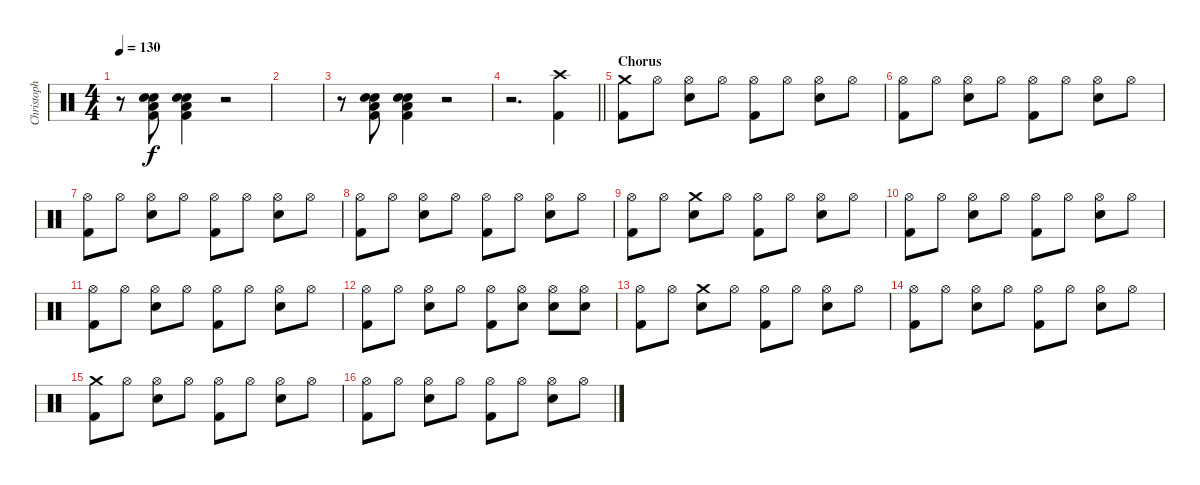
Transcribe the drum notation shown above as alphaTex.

\track ("Christoph \"Doom\" Schneider" "Christoph ") {instrument percussion}
\staff {score}
\articulation defaults
\ts (4 4)
\tempo 130
\clef neutral
\ks c
r.8{dy f} ("Electric Snare (hit)" "Kick (hit) 2" "Low Floor Tom (hit)" "Electric Snare (hit)").8 ("Electric Snare (hit)" "Kick (hit) 2" "Low Floor Tom (hit)" "Electric Snare (hit)").4 r.2 |
|
r.8 ("Electric Snare (hit)" "Kick (hit) 2" "Low Floor Tom (hit)" "Electric Snare (hit)").8 ("Electric Snare (hit)" "Kick (hit) 2" "Low Floor Tom (hit)" "Electric Snare (hit)").4 r.2 |
\barLineRight lightlight
r.2{d} ("Crash high (hit)" "Kick (hit) 2").4 |
\section ("" "Chorus")
("Crash medium (hit)" "Kick (hit) 2").8 "Hi-Hat (open)".8 ("Hi-Hat (open)" "Electric Snare (hit)").8 "Hi-Hat (open)".8 ("Hi-Hat (open)" "Kick (hit) 2").8 "Hi-Hat (open)".8 ("Hi-Hat (open)" "Electric Snare (hit)").8 "Hi-Hat (open)".8 |
("Hi-Hat (open)" "Kick (hit) 2").8 "Hi-Hat (open)".8 ("Hi-Hat (open)" "Electric Snare (hit)").8 "Hi-Hat (open)".8 ("Hi-Hat (open)" "Kick (hit) 2").8 "Hi-Hat (open)".8 ("Hi-Hat (open)" "Electric Snare (hit)").8 "Hi-Hat (open)".8 |
("Hi-Hat (open)" "Kick (hit) 2").8 "Hi-Hat (open)".8 ("Hi-Hat (open)" "Electric Snare (hit)").8 "Hi-Hat (open)".8 ("Hi-Hat (open)" "Kick (hit) 2").8 "Hi-Hat (open)".8 ("Hi-Hat (open)" "Electric Snare (hit)").8 "Hi-Hat (open)".8 |
("Hi-Hat (open)" "Kick (hit) 2").8 "Hi-Hat (open)".8 ("Hi-Hat (open)" "Electric Snare (hit)").8 "Hi-Hat (open)".8 ("Hi-Hat (open)" "Kick (hit) 2").8 "Hi-Hat (open)".8 ("Hi-Hat (open)" "Electric Snare (hit)").8 "Hi-Hat (open)".8 |
("Hi-Hat (open)" "Kick (hit) 2").8 "Hi-Hat (open)".8 ("Crash medium (hit)" "Electric Snare (hit)").8 "Hi-Hat (open)".8 ("Hi-Hat (open)" "Kick (hit) 2").8 "Hi-Hat (open)".8 ("Hi-Hat (open)" "Electric Snare (hit)").8 "Hi-Hat (open)".8 |
("Hi-Hat (open)" "Kick (hit) 2").8 "Hi-Hat (open)".8 ("Hi-Hat (open)" "Electric Snare (hit)").8 "Hi-Hat (open)".8 ("Hi-Hat (open)" "Kick (hit) 2").8 "Hi-Hat (open)".8 ("Hi-Hat (open)" "Electric Snare (hit)").8 "Hi-Hat (open)".8 |
("Hi-Hat (open)" "Kick (hit) 2").8 "Hi-Hat (open)".8 ("Hi-Hat (open)" "Electric Snare (hit)").8 "Hi-Hat (open)".8 ("Hi-Hat (open)" "Kick (hit) 2").8 "Hi-Hat (open)".8 ("Hi-Hat (open)" "Electric Snare (hit)").8 "Hi-Hat (open)".8 |
("Hi-Hat (open)" "Kick (hit) 2").8 "Hi-Hat (open)".8 ("Hi-Hat (open)" "Electric Snare (hit)").8 "Hi-Hat (open)".8 ("Hi-Hat (open)" "Kick (hit) 2").8 ("Hi-Hat (open)" "Electric Snare (hit)").8 ("Hi-Hat (open)" "Electric Snare (hit)").8 ("Hi-Hat (open)" "Electric Snare (hit)").8 |
("Hi-Hat (open)" "Kick (hit) 2").8 "Hi-Hat (open)".8 ("Crash medium (hit)" "Electric Snare (hit)").8 "Hi-Hat (open)".8 ("Hi-Hat (open)" "Kick (hit) 2").8 "Hi-Hat (open)".8 ("Hi-Hat (open)" "Electric Snare (hit)").8 "Hi-Hat (open)".8 |
("Hi-Hat (open)" "Kick (hit) 2").8 "Hi-Hat (open)".8 ("Hi-Hat (open)" "Electric Snare (hit)").8 "Hi-Hat (open)".8 ("Hi-Hat (open)" "Kick (hit) 2").8 "Hi-Hat (open)".8 ("Hi-Hat (open)" "Electric Snare (hit)").8 "Hi-Hat (open)".8 |
("Crash medium (hit)" "Kick (hit) 2").8 "Hi-Hat (open)".8 ("Hi-Hat (open)" "Electric Snare (hit)").8 "Hi-Hat (open)".8 ("Hi-Hat (open)" "Kick (hit) 2").8 "Hi-Hat (open)".8 ("Hi-Hat (open)" "Electric Snare (hit)").8 "Hi-Hat (open)".8 |
("Hi-Hat (open)" "Kick (hit) 2").8 "Hi-Hat (open)".8 ("Hi-Hat (open)" "Electric Snare (hit)").8 "Hi-Hat (open)".8 ("Hi-Hat (open)" "Kick (hit) 2").8 "Hi-Hat (open)".8 ("Hi-Hat (open)" "Electric Snare (hit)").8 "Hi-Hat (open)".8
